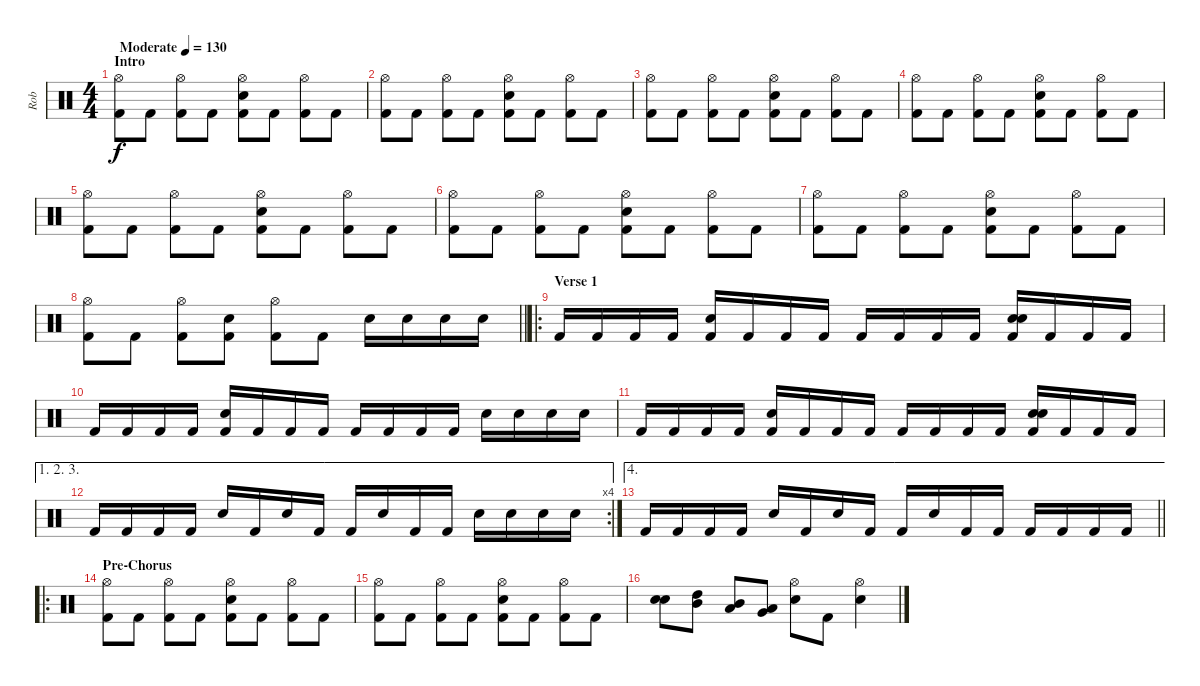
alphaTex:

\track ("Rob" "Rob") {instrument percussion}
\staff {score}
\articulation defaults
\ts (4 4)
\section ("" "Intro")
\tempo (130 "Moderate")
\clef neutral
\ks c
("Hi-Hat (open)" "Kick (hit) 2").8{dy f volume 0} "Kick (hit) 2".8 ("Hi-Hat (open)" "Kick (hit) 2").8{volume 7} "Kick (hit) 2".8 ("Hi-Hat (open)" "Electric Snare (hit)" "Kick (hit) 2").8 "Kick (hit) 2".8 ("Hi-Hat (open)" "Kick (hit) 2").8 "Kick (hit) 2".8 |
("Hi-Hat (open)" "Kick (hit) 2").8 "Kick (hit) 2".8 ("Hi-Hat (open)" "Kick (hit) 2").8 "Kick (hit) 2".8 ("Hi-Hat (open)" "Electric Snare (hit)" "Kick (hit) 2").8 "Kick (hit) 2".8 ("Hi-Hat (open)" "Kick (hit) 2").8 "Kick (hit) 2".8 |
("Hi-Hat (open)" "Kick (hit) 2").8 "Kick (hit) 2".8 ("Hi-Hat (open)" "Kick (hit) 2").8 "Kick (hit) 2".8 ("Hi-Hat (open)" "Electric Snare (hit)" "Kick (hit) 2").8 "Kick (hit) 2".8 ("Hi-Hat (open)" "Kick (hit) 2").8 "Kick (hit) 2".8 |
("Hi-Hat (open)" "Kick (hit) 2").8 "Kick (hit) 2".8 ("Hi-Hat (open)" "Kick (hit) 2").8 "Kick (hit) 2".8 ("Hi-Hat (open)" "Electric Snare (hit)" "Kick (hit) 2").8 "Kick (hit) 2".8 ("Hi-Hat (open)" "Kick (hit) 2").8 "Kick (hit) 2".8 |
("Hi-Hat (open)" "Kick (hit) 2").8{volume 16} "Kick (hit) 2".8 ("Hi-Hat (open)" "Kick (hit) 2").8 "Kick (hit) 2".8 ("Hi-Hat (open)" "Electric Snare (hit)" "Kick (hit) 2").8 "Kick (hit) 2".8 ("Hi-Hat (open)" "Kick (hit) 2").8 "Kick (hit) 2".8 |
("Hi-Hat (open)" "Kick (hit) 2").8 "Kick (hit) 2".8 ("Hi-Hat (open)" "Kick (hit) 2").8 "Kick (hit) 2".8 ("Hi-Hat (open)" "Electric Snare (hit)" "Kick (hit) 2").8 "Kick (hit) 2".8 ("Hi-Hat (open)" "Kick (hit) 2").8 "Kick (hit) 2".8 |
("Hi-Hat (open)" "Kick (hit) 2").8 "Kick (hit) 2".8 ("Hi-Hat (open)" "Kick (hit) 2").8 "Kick (hit) 2".8 ("Hi-Hat (open)" "Electric Snare (hit)" "Kick (hit) 2").8 "Kick (hit) 2".8 ("Hi-Hat (open)" "Kick (hit) 2").8 "Kick (hit) 2".8 |
\barLineRight lightlight
("Hi-Hat (open)" "Kick (hit) 2").8 "Kick (hit) 2".8 ("Hi-Hat (open)" "Kick (hit) 2").8 ("Electric Snare (hit)" "Kick (hit) 2").8 ("Hi-Hat (open)" "Kick (hit) 2").8 "Kick (hit) 2".8 "Electric Snare (hit)".16 "Electric Snare (hit)".16 "Electric Snare (hit)".16 "Electric Snare (hit)".16 |
\ro
\section ("" "Verse 1")
"Kick (hit) 2".16 "Kick (hit) 2".16 "Kick (hit) 2".16 "Kick (hit) 2".16 ("Electric Snare (hit)" "Kick (hit) 2").16 "Kick (hit) 2".16 "Kick (hit) 2".16 "Kick (hit) 2".16 "Kick (hit) 2".16 "Kick (hit) 2".16 "Kick (hit) 2".16 "Kick (hit) 2".16 ("Snare (hit) 2" "Electric Snare (hit)" "Kick (hit) 2").16{bu 480} "Kick (hit) 2".16 "Kick (hit) 2".16 "Kick (hit) 2".16 |
"Kick (hit) 2".16 "Kick (hit) 2".16 "Kick (hit) 2".16 "Kick (hit) 2".16 ("Electric Snare (hit)" "Kick (hit) 2").16 "Kick (hit) 2".16 "Kick (hit) 2".16 "Kick (hit) 2".16 "Kick (hit) 2".16 "Kick (hit) 2".16 "Kick (hit) 2".16 "Kick (hit) 2".16 "Electric Snare (hit)".16 "Electric Snare (hit)".16 "Electric Snare (hit)".16 "Electric Snare (hit)".16 |
"Kick (hit) 2".16 "Kick (hit) 2".16 "Kick (hit) 2".16 "Kick (hit) 2".16 ("Electric Snare (hit)" "Kick (hit) 2").16 "Kick (hit) 2".16 "Kick (hit) 2".16 "Kick (hit) 2".16 "Kick (hit) 2".16 "Kick (hit) 2".16 "Kick (hit) 2".16 "Kick (hit) 2".16 ("Snare (hit) 2" "Electric Snare (hit)" "Kick (hit) 2").16{bu 480} "Kick (hit) 2".16 "Kick (hit) 2".16 "Kick (hit) 2".16 |
\ae (1 2 3)
\rc 4 "Kick (hit) 2".16 "Kick (hit) 2".16 "Kick (hit) 2".16 "Kick (hit) 2".16 "Electric Snare (hit)".16 "Kick (hit) 2".16 "Electric Snare (hit)".16 "Kick (hit) 2".16 "Kick (hit) 2".16 "Electric Snare (hit)".16 "Kick (hit) 2".16 "Kick (hit) 2".16 "Electric Snare (hit)".16 "Electric Snare (hit)".16 "Electric Snare (hit)".16 "Electric Snare (hit)".16
|
\ae 4
\barLineRight lightlight "Kick (hit) 2".16 "Kick (hit) 2".16 "Kick (hit) 2".16 "Kick (hit) 2".16 "Electric Snare (hit)".16 "Kick (hit) 2".16 "Electric Snare (hit)".16 "Kick (hit) 2".16 "Kick (hit) 2".16 "Electric Snare (hit)".16 "Kick (hit) 2".16 "Kick (hit) 2".16 "Kick (hit) 2".16 "Kick (hit) 2".16 "Kick (hit) 2".16 "Kick (hit) 2".16
|
\ro
\section ("" "Pre-Chorus")
("Hi-Hat (open)" "Kick (hit) 2").8 "Kick (hit) 2".8 ("Hi-Hat (open)" "Kick (hit) 2").8 "Kick (hit) 2".8 ("Hi-Hat (open)" "Electric Snare (hit)" "Kick (hit) 2").8 "Kick (hit) 2".8 ("Hi-Hat (open)" "Kick (hit) 2").8 "Kick (hit) 2".8 |
("Hi-Hat (open)" "Kick (hit) 2").8 "Kick (hit) 2".8 ("Hi-Hat (open)" "Kick (hit) 2").8 "Kick (hit) 2".8 ("Hi-Hat (open)" "Electric Snare (hit)" "Kick (hit) 2").8 "Kick (hit) 2".8 ("Hi-Hat (open)" "Kick (hit) 2").8 "Kick (hit) 2".8 |
("Snare (hit) 2" "Electric Snare (hit)").8{bu 480} ("High Tom (hit)" "Mid Tom (hit)").8{bu 480} ("Mid Tom (hit)" "Low Tom (hit)").8{bu 480} ("Low Tom (hit)" "Very Low Tom (hit)").8{bu 480} ("Hi-Hat (open)" "Electric Snare (hit)").8 "Kick (hit) 2".8 ("Hi-Hat (open)" "Electric Snare (hit)").4
